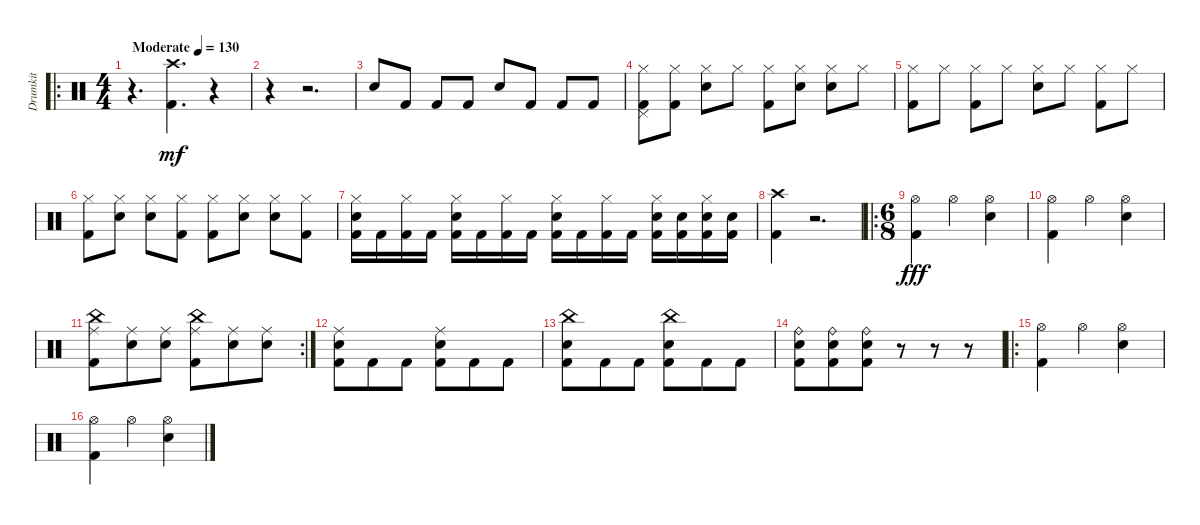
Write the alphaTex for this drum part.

\track ("Drumkit" "Drumkit") {instrument percussion}
\staff {score}
\articulation defaults
\ro
\ts (4 4)
\tempo (130 "Moderate")
\clef neutral
\ks c
r.4{d dy mf} ("Crash high (hit)" "Kick (hit) 2").4{d} r.4 |
r.4 r.2{d} |
"Snare (hit) 2".8 "Kick (hit) 2".8 "Kick (hit) 2".8 "Kick (hit) 2".8 "Snare (hit) 2".8 "Kick (hit) 2".8 "Kick (hit) 2".8 "Kick (hit) 2".8 |
("Kick (hit) 2" "Hi-Hat (closed)" "Pedal Hi-Hat (hit)").8 ("Kick (hit) 2" "Hi-Hat (closed)").8 ("Snare (hit) 2" "Hi-Hat (closed)").8 "Hi-Hat (closed)".8 ("Kick (hit) 2" "Hi-Hat (closed)").8 ("Snare (hit) 2" "Hi-Hat (closed)").8 ("Snare (hit) 2" "Hi-Hat (closed)").8 "Hi-Hat (closed)".8 |
("Kick (hit) 2" "Hi-Hat (closed)").8 "Hi-Hat (closed)".8 ("Kick (hit) 2" "Hi-Hat (closed)").8 "Hi-Hat (closed)".8 ("Snare (hit) 2" "Hi-Hat (closed)").8 "Hi-Hat (closed)".8 ("Kick (hit) 2" "Hi-Hat (closed)").8 "Hi-Hat (closed)".8 |
("Kick (hit) 2" "Hi-Hat (closed)").8 ("Snare (hit) 2" "Hi-Hat (closed)").8 ("Snare (hit) 2" "Hi-Hat (closed)").8 ("Kick (hit) 2" "Hi-Hat (closed)").8 ("Kick (hit) 2" "Hi-Hat (closed)").8 ("Snare (hit) 2" "Hi-Hat (closed)").8 ("Snare (hit) 2" "Hi-Hat (closed)").8 ("Kick (hit) 2" "Hi-Hat (closed)").8 |
("Kick (hit) 2" "Hi-Hat (closed)" "Snare (hit) 2").16 "Kick (hit) 2".16 ("Kick (hit) 2" "Hi-Hat (closed)").16 "Kick (hit) 2".16 ("Kick (hit) 2" "Snare (hit) 2" "Hi-Hat (closed)").16 "Kick (hit) 2".16 ("Kick (hit) 2" "Hi-Hat (closed)").16 "Kick (hit) 2".16 ("Kick (hit) 2" "Hi-Hat (closed)" "Snare (hit) 2").16 "Kick (hit) 2".16 ("Kick (hit) 2" "Hi-Hat (closed)").16 "Kick (hit) 2".16 ("Kick (hit) 2" "Hi-Hat (closed)" "Snare (hit) 2").16 ("Kick (hit) 2" "Snare (hit) 2").16 ("Kick (hit) 2" "Hi-Hat (closed)" "Snare (hit) 2").16 ("Kick (hit) 2" "Snare (hit) 2").16 |
("Crash high (hit)" "Kick (hit) 2").4 r.2{d} |
\ro
\ts (6 8)
("Kick (hit) 2" "Hi-Hat (open)").4{dy fff} "Hi-Hat (open)".4 ("Snare (hit) 2" "Hi-Hat (open)").4 |
("Kick (hit) 2" "Hi-Hat (open)").4 "Hi-Hat (open)".4 ("Snare (hit) 2" "Hi-Hat (open)").4 |
\rc 2
("Kick (hit) 2" "China (hit)" "Ride (middle)").8 ("Snare (hit) 2" "Ride (middle)").8 ("Snare (hit) 2" "Ride (middle)").8 ("Kick (hit) 2" "China (hit)" "Ride (middle)").8 ("Snare (hit) 2" "Ride (middle)").8 ("Snare (hit) 2" "Ride (middle)").8 |
("Kick (hit) 2" "Snare (hit) 2" "Ride (middle)").8 "Kick (hit) 2".8 "Kick (hit) 2".8 ("Kick (hit) 2" "Snare (hit) 2" "Ride (middle)").8 "Kick (hit) 2".8 "Kick (hit) 2".8 |
("Kick (hit) 2" "Snare (hit) 2" "China (hit)").8 "Kick (hit) 2".8 "Kick (hit) 2".8 ("Kick (hit) 2" "Snare (hit) 2" "China (hit)").8 "Kick (hit) 2".8 "Kick (hit) 2".8 |
("Kick (hit) 2" "Ride (bell)" "Snare (hit) 2").8 ("Kick (hit) 2" "Ride (bell)" "Snare (hit) 2").8 ("Kick (hit) 2" "Ride (bell)" "Snare (hit) 2").8 r.8 r.8 r.8 |
\ro
("Kick (hit) 2" "Hi-Hat (open)").4 "Hi-Hat (open)".4 ("Snare (hit) 2" "Hi-Hat (open)").4 |
("Kick (hit) 2" "Hi-Hat (open)").4 "Hi-Hat (open)".4 ("Snare (hit) 2" "Hi-Hat (open)").4
